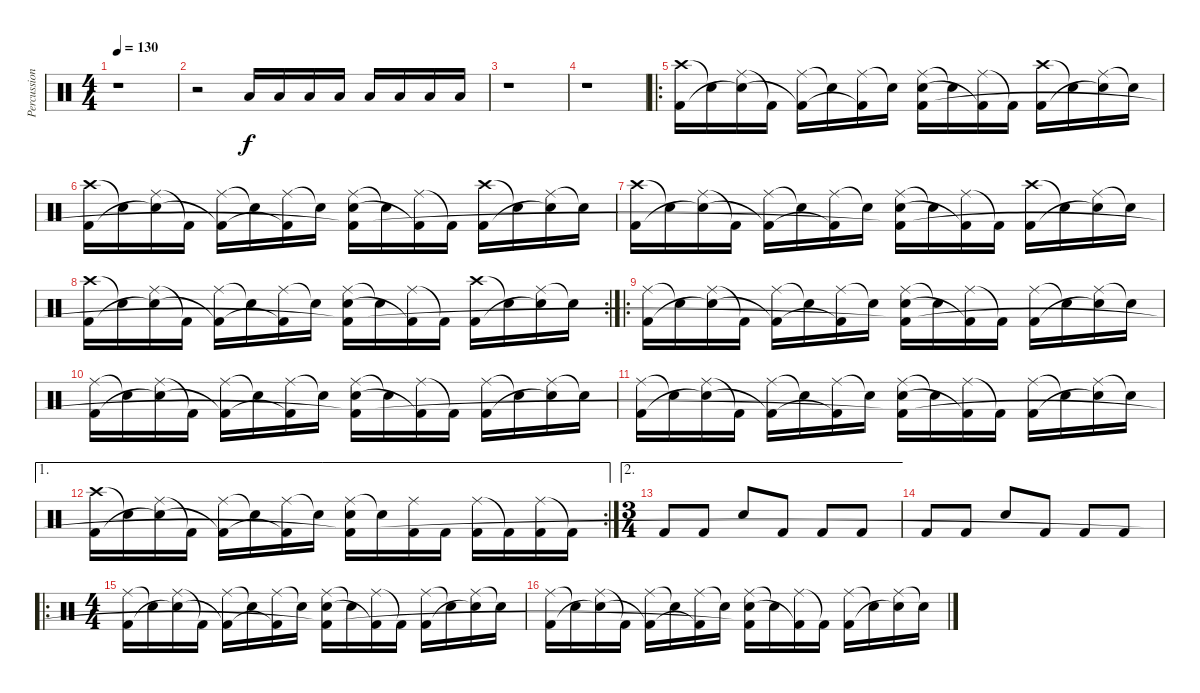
\track ("Percussion" "Percussion") {instrument percussion}
\staff {score}
\articulation defaults
\ts (4 4)
\tempo 130
\clef neutral
\ks c
r.1{dy f} |
r.2 "Low Tom (hit)".16 "Low Tom (hit)".16 "Low Tom (hit)".16 "Low Tom (hit)".16 "Low Tom (hit)".16 "Low Tom (hit)".16 "Low Tom (hit)".16 "Low Tom (hit)".16 |
r.1 |
r.1 |
\ro
("Crash high (hit)" "Kick (hit) 2").16 "Snare (hit)"{t}.16 ("Ride (middle)" "Snare (hit)"{t}).16 "Kick (hit) 2"{t}.16 ("Ride (middle)" "Kick (hit) 2"{t}).16 "Snare (hit)"{t}.16 ("Ride (middle)" "Kick (hit) 2"{t}).16 "Snare (hit)"{t}.16 ("Ride (middle)" "Electric Snare (hit)" "Kick (hit) 2").16 "Snare (hit)"{t}.16 ("Ride (middle)" "Kick (hit) 2"{t}).16 "Kick (hit) 2"{t}.16 ("Crash high (hit)" "Kick (hit) 2").16 "Snare (hit)"{t}.16 ("Ride (middle)" "Snare (hit)"{t}).16 "Snare (hit)"{t}.16 |
("Crash high (hit)" "Kick (hit) 2").16 "Snare (hit)"{t}.16 ("Ride (middle)" "Snare (hit)"{t}).16 "Kick (hit) 2"{t}.16 ("Ride (middle)" "Kick (hit) 2"{t}).16 "Snare (hit)"{t}.16 ("Ride (middle)" "Kick (hit) 2"{t}).16 "Snare (hit)"{t}.16 ("Ride (middle)" "Electric Snare (hit)" "Kick (hit) 2"{t}).16 "Snare (hit)"{t}.16 ("Ride (middle)" "Kick (hit) 2"{t}).16 "Kick (hit) 2"{t}.16 ("Crash high (hit)" "Kick (hit) 2").16 "Snare (hit)"{t}.16 ("Ride (middle)" "Snare (hit)"{t}).16 "Snare (hit)"{t}.16 |
("Crash high (hit)" "Kick (hit) 2").16 "Snare (hit)"{t}.16 ("Ride (middle)" "Snare (hit)"{t}).16 "Kick (hit) 2"{t}.16 ("Ride (middle)" "Kick (hit) 2"{t}).16 "Snare (hit)"{t}.16 ("Ride (middle)" "Kick (hit) 2"{t}).16 "Snare (hit)"{t}.16 ("Ride (middle)" "Electric Snare (hit)" "Kick (hit) 2"{t}).16 "Snare (hit)"{t}.16 ("Ride (middle)" "Kick (hit) 2"{t}).16 "Kick (hit) 2"{t}.16 ("Crash high (hit)" "Kick (hit) 2").16 "Snare (hit)"{t}.16 ("Ride (middle)" "Snare (hit)"{t}).16 "Snare (hit)"{t}.16 |
\rc 2
("Crash high (hit)" "Kick (hit) 2").16 "Snare (hit)"{t}.16 ("Ride (middle)" "Snare (hit)"{t}).16 "Kick (hit) 2"{t}.16 ("Ride (middle)" "Kick (hit) 2"{t}).16 "Snare (hit)"{t}.16 ("Ride (middle)" "Kick (hit) 2"{t}).16 "Snare (hit)"{t}.16 ("Ride (middle)" "Electric Snare (hit)" "Kick (hit) 2"{t}).16 "Snare (hit)"{t}.16 ("Ride (middle)" "Kick (hit) 2"{t}).16 "Kick (hit) 2"{t}.16 ("Crash high (hit)" "Kick (hit) 2").16 "Snare (hit)"{t}.16 ("Ride (middle)" "Snare (hit)"{t}).16 "Snare (hit)"{t}.16 |
\ro
("Ride (middle)" "Kick (hit) 2").16 "Snare (hit)"{t}.16 ("Ride (middle)" "Snare (hit)"{t}).16 "Kick (hit) 2"{t}.16 ("Ride (middle)" "Kick (hit) 2"{t}).16 "Snare (hit)"{t}.16 ("Ride (middle)" "Kick (hit) 2"{t}).16 "Snare (hit)"{t}.16 ("Ride (middle)" "Electric Snare (hit)" "Kick (hit) 2"{t}).16 "Snare (hit)"{t}.16 ("Ride (middle)" "Kick (hit) 2"{t}).16 "Kick (hit) 2"{t}.16 ("Ride (middle)" "Kick (hit) 2").16 "Snare (hit)"{t}.16 ("Ride (middle)" "Snare (hit)"{t}).16 "Snare (hit)"{t}.16 |
("Ride (middle)" "Kick (hit) 2").16 "Snare (hit)"{t}.16 ("Ride (middle)" "Snare (hit)"{t}).16 "Kick (hit) 2"{t}.16 ("Ride (middle)" "Kick (hit) 2"{t}).16 "Snare (hit)"{t}.16 ("Ride (middle)" "Kick (hit) 2"{t}).16 "Snare (hit)"{t}.16 ("Ride (middle)" "Electric Snare (hit)" "Kick (hit) 2"{t}).16 "Snare (hit)"{t}.16 ("Ride (middle)" "Kick (hit) 2"{t}).16 "Kick (hit) 2"{t}.16 ("Ride (middle)" "Kick (hit) 2").16 "Snare (hit)"{t}.16 ("Ride (middle)" "Snare (hit)"{t}).16 "Snare (hit)"{t}.16 |
("Ride (middle)" "Kick (hit) 2").16 "Snare (hit)"{t}.16 ("Ride (middle)" "Snare (hit)"{t}).16 "Kick (hit) 2"{t}.16 ("Ride (middle)" "Kick (hit) 2"{t}).16 "Snare (hit)"{t}.16 ("Ride (middle)" "Kick (hit) 2"{t}).16 "Snare (hit)"{t}.16 ("Ride (middle)" "Electric Snare (hit)" "Kick (hit) 2"{t}).16 "Snare (hit)"{t}.16 ("Ride (middle)" "Kick (hit) 2"{t}).16 "Kick (hit) 2"{t}.16 ("Ride (middle)" "Kick (hit) 2").16 "Snare (hit)"{t}.16 ("Ride (middle)" "Snare (hit)"{t}).16 "Snare (hit)"{t}.16 |
\ae 1
\rc 2
("Crash high (hit)" "Kick (hit) 2").16 "Snare (hit)"{t}.16 ("Ride (middle)" "Snare (hit)"{t}).16 "Kick (hit) 2"{t}.16 ("Ride (middle)" "Kick (hit) 2"{t}).16 "Snare (hit)"{t}.16 ("Ride (middle)" "Kick (hit) 2"{t}).16 "Snare (hit)"{t}.16 ("Ride (middle)" "Electric Snare (hit)" "Kick (hit) 2"{t}).16 "Snare (hit)"{t}.16 ("Ride (middle)" "Kick (hit) 2").16 "Kick (hit) 2".16 ("Ride (middle)" "Kick (hit) 2").16 "Kick (hit) 2"{t}.16 ("Ride (middle)" "Kick (hit) 2").16 "Kick (hit) 2"{t}.16 |
\ae 2
\ts (3 4)
"Kick (hit) 2".8 "Kick (hit) 2".8 "Electric Snare (hit)".8 "Kick (hit) 2".8 "Kick (hit) 2".8 "Kick (hit) 2".8 |
"Kick (hit) 2".8 "Kick (hit) 2".8 "Electric Snare (hit)".8 "Kick (hit) 2".8 "Kick (hit) 2".8 "Kick (hit) 2".8 |
\ro
\ts (4 4)
("Ride (middle)" "Kick (hit) 2").16 "Snare (hit)"{t}.16 ("Ride (middle)" "Snare (hit)"{t}).16 "Kick (hit) 2"{t}.16 ("Ride (middle)" "Kick (hit) 2"{t}).16 "Snare (hit)"{t}.16 ("Ride (middle)" "Kick (hit) 2"{t}).16 "Snare (hit)"{t}.16 ("Ride (middle)" "Electric Snare (hit)" "Kick (hit) 2"{t}).16 "Snare (hit)"{t}.16 ("Ride (middle)" "Kick (hit) 2"{t}).16 "Kick (hit) 2"{t}.16 ("Ride (middle)" "Kick (hit) 2").16 "Snare (hit)"{t}.16 ("Ride (middle)" "Snare (hit)"{t}).16 "Snare (hit)"{t}.16 |
("Ride (middle)" "Kick (hit) 2").16 "Snare (hit)"{t}.16 ("Ride (middle)" "Snare (hit)"{t}).16 "Kick (hit) 2"{t}.16 ("Ride (middle)" "Kick (hit) 2"{t}).16 "Snare (hit)"{t}.16 ("Ride (middle)" "Kick (hit) 2"{t}).16 "Snare (hit)"{t}.16 ("Ride (middle)" "Electric Snare (hit)" "Kick (hit) 2"{t}).16 "Snare (hit)"{t}.16 ("Ride (middle)" "Kick (hit) 2"{t}).16 "Kick (hit) 2"{t}.16 ("Ride (middle)" "Kick (hit) 2").16 "Snare (hit)"{t}.16 ("Ride (middle)" "Snare (hit)"{t}).16 "Snare (hit)"{t}.16
